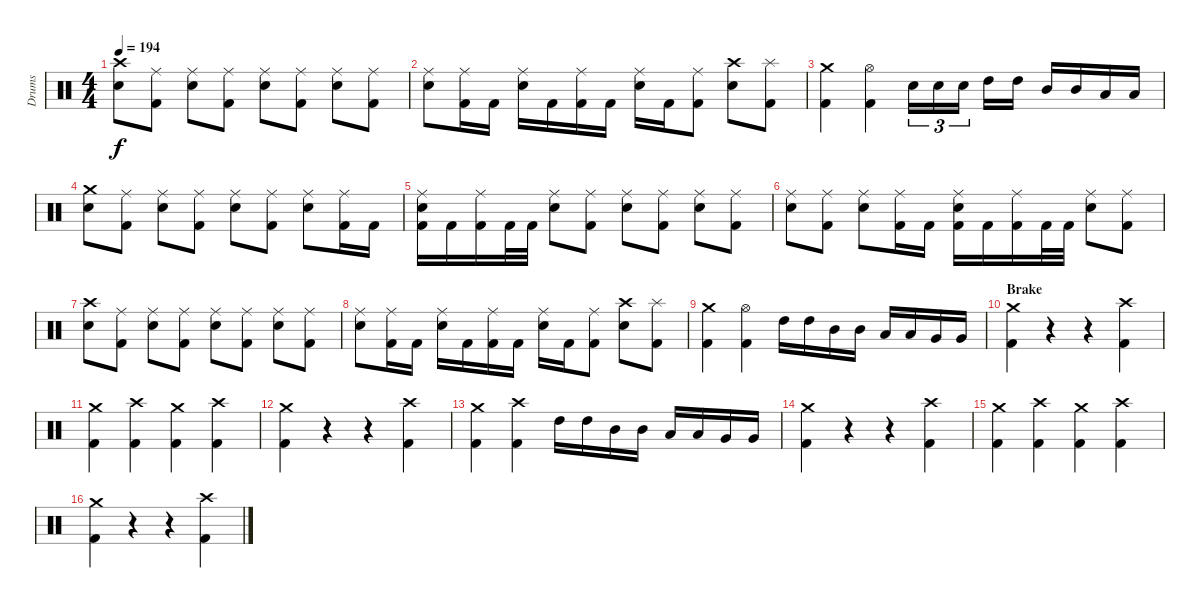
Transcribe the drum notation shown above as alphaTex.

\track ("Drums" "Drums") {instrument percussion}
\staff {score}
\articulation defaults
\ts (4 4)
\tempo 194
\clef neutral
\ks c
("Crash high (hit)" "Electric Snare (hit)").8{dy f} ("Ride (middle)" "Kick (hit) 2").8 ("Ride (middle)" "Electric Snare (hit)").8 ("Ride (middle)" "Kick (hit) 2").8 ("Ride (middle)" "Electric Snare (hit)").8 ("Ride (middle)" "Kick (hit) 2").8 ("Ride (middle)" "Electric Snare (hit)").8 ("Ride (middle)" "Kick (hit) 2").8 |
("Ride (middle)" "Electric Snare (hit)").8 ("Ride (middle)" "Kick (hit) 2").16 "Kick (hit) 2".16 ("Ride (middle)" "Electric Snare (hit)").16 "Kick (hit) 2".16 ("Ride (middle)" "Kick (hit) 2").16 "Kick (hit) 2".16 ("Ride (middle)" "Electric Snare (hit)").16 "Kick (hit) 2".16 ("Ride (middle)" "Kick (hit) 2").8 ("Crash high (hit)" "Electric Snare (hit)").8 ("Splash (hit)" "Kick (hit) 2").8 |
("Crash medium (hit)" "Kick (hit) 2").4 ("Hi-Hat (open)" "Kick (hit) 2").4 "Electric Snare (hit)".16{tu (3 2)} "Electric Snare (hit)".16{tu (3 2)} "Electric Snare (hit)".16{tu (3 2)} "High Tom (hit)".16 "High Tom (hit)".16 "Mid Tom (hit)".16 "Mid Tom (hit)".16 "Low Tom (hit)".16 "Low Tom (hit)".16 |
("Crash medium (hit)" "Electric Snare (hit)").8 ("Ride (middle)" "Kick (hit) 2").8 ("Ride (middle)" "Electric Snare (hit)").8 ("Ride (middle)" "Kick (hit) 2").8 ("Ride (middle)" "Electric Snare (hit)").8 ("Ride (middle)" "Kick (hit) 2").8 ("Ride (middle)" "Electric Snare (hit)").8 ("Ride (middle)" "Kick (hit) 2").16 "Kick (hit) 2".16 |
("Ride (middle)" "Electric Snare (hit)" "Kick (hit) 2").16 "Kick (hit) 2".16 ("Ride (middle)" "Kick (hit) 2").16 "Kick (hit) 2".32 "Kick (hit) 2".32 ("Ride (middle)" "Electric Snare (hit)").8 ("Ride (middle)" "Kick (hit) 2").8 ("Ride (middle)" "Electric Snare (hit)").8 ("Ride (middle)" "Kick (hit) 2").8 ("Ride (middle)" "Electric Snare (hit)").8 ("Ride (middle)" "Kick (hit) 2").8 |
("Ride (middle)" "Electric Snare (hit)").8 ("Ride (middle)" "Kick (hit) 2").8 ("Ride (middle)" "Electric Snare (hit)").8 ("Ride (middle)" "Kick (hit) 2").16 "Kick (hit) 2".16 ("Ride (middle)" "Electric Snare (hit)" "Kick (hit) 2").16 "Kick (hit) 2".16 ("Ride (middle)" "Kick (hit) 2").16 "Kick (hit) 2".32 "Kick (hit) 2".32 ("Ride (middle)" "Electric Snare (hit)").8 ("Ride (middle)" "Kick (hit) 2").8 |
("Crash high (hit)" "Electric Snare (hit)").8 ("Ride (middle)" "Kick (hit) 2").8 ("Ride (middle)" "Electric Snare (hit)").8 ("Ride (middle)" "Kick (hit) 2").8 ("Ride (middle)" "Electric Snare (hit)").8 ("Ride (middle)" "Kick (hit) 2").8 ("Ride (middle)" "Electric Snare (hit)").8 ("Ride (middle)" "Kick (hit) 2").8 |
("Ride (middle)" "Electric Snare (hit)").8 ("Ride (middle)" "Kick (hit) 2").16 "Kick (hit) 2".16 ("Ride (middle)" "Electric Snare (hit)").16 "Kick (hit) 2".16 ("Ride (middle)" "Kick (hit) 2").16 "Kick (hit) 2".16 ("Ride (middle)" "Electric Snare (hit)").16 "Kick (hit) 2".16 ("Ride (middle)" "Kick (hit) 2").8 ("Crash high (hit)" "Electric Snare (hit)").8 ("Splash (hit)" "Kick (hit) 2").8 |
("Crash medium (hit)" "Kick (hit) 2").4 ("Hi-Hat (open)" "Kick (hit) 2").4 "High Tom (hit)".16 "High Tom (hit)".16 "Mid Tom (hit)".16 "Mid Tom (hit)".16 "Low Tom (hit)".16 "Low Tom (hit)".16 "Very Low Tom (hit)".16 "Very Low Tom (hit)".16 |
\section ("" "Brake")
("Crash medium (hit)" "Kick (hit) 2").4 r.4 r.4 ("Crash high (hit)" "Kick (hit) 2").4 |
("Crash medium (hit)" "Kick (hit) 2").4 ("Crash high (hit)" "Kick (hit) 2").4 ("Crash medium (hit)" "Kick (hit) 2").4 ("Crash high (hit)" "Kick (hit) 2").4 |
("Crash medium (hit)" "Kick (hit) 2").4 r.4 r.4 ("Crash high (hit)" "Kick (hit) 2").4 |
("Crash medium (hit)" "Kick (hit) 2").4 ("Crash high (hit)" "Kick (hit) 2").4 "High Tom (hit)".16 "High Tom (hit)".16 "Mid Tom (hit)".16 "Mid Tom (hit)".16 "Low Tom (hit)".16 "Low Tom (hit)".16 "Very Low Tom (hit)".16 "Very Low Tom (hit)".16 |
("Crash medium (hit)" "Kick (hit) 2").4 r.4 r.4 ("Crash high (hit)" "Kick (hit) 2").4 |
("Crash medium (hit)" "Kick (hit) 2").4 ("Crash high (hit)" "Kick (hit) 2").4 ("Crash medium (hit)" "Kick (hit) 2").4 ("Crash high (hit)" "Kick (hit) 2").4 |
("Crash medium (hit)" "Kick (hit) 2").4 r.4 r.4 ("Crash high (hit)" "Kick (hit) 2").4
